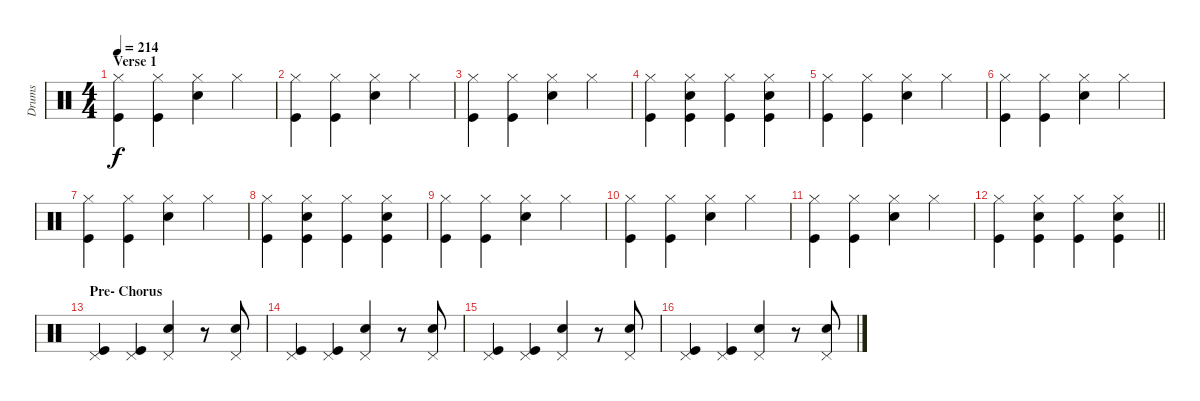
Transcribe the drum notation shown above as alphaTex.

\track ("Drums" "Drums") {instrument percussion}
\staff {score}
\articulation defaults
\ts (4 4)
\section ("" "Verse 1")
\tempo 214
\clef neutral
\ks c
("Hi-Hat (closed)" "Kick (hit)").4{dy f} ("Hi-Hat (closed)" "Kick (hit)").4 ("Hi-Hat (closed)" "Snare (hit) 2").4 "Hi-Hat (closed)".4 |
("Hi-Hat (closed)" "Kick (hit)").4 ("Hi-Hat (closed)" "Kick (hit)").4 ("Hi-Hat (closed)" "Snare (hit) 2").4 "Hi-Hat (closed)".4 |
("Hi-Hat (closed)" "Kick (hit)").4 ("Hi-Hat (closed)" "Kick (hit)").4 ("Hi-Hat (closed)" "Snare (hit) 2").4 "Hi-Hat (closed)".4 |
("Hi-Hat (closed)" "Kick (hit)").4 ("Hi-Hat (closed)" "Snare (hit) 2" "Kick (hit)").4 ("Hi-Hat (closed)" "Kick (hit)").4 ("Hi-Hat (closed)" "Snare (hit) 2" "Kick (hit)").4 |
("Hi-Hat (closed)" "Kick (hit)").4 ("Hi-Hat (closed)" "Kick (hit)").4 ("Hi-Hat (closed)" "Snare (hit) 2").4 "Hi-Hat (closed)".4 |
("Hi-Hat (closed)" "Kick (hit)").4 ("Hi-Hat (closed)" "Kick (hit)").4 ("Hi-Hat (closed)" "Snare (hit) 2").4 "Hi-Hat (closed)".4 |
("Hi-Hat (closed)" "Kick (hit)").4 ("Hi-Hat (closed)" "Kick (hit)").4 ("Hi-Hat (closed)" "Snare (hit) 2").4 "Hi-Hat (closed)".4 |
("Hi-Hat (closed)" "Kick (hit)").4 ("Hi-Hat (closed)" "Snare (hit) 2" "Kick (hit)").4 ("Hi-Hat (closed)" "Kick (hit)").4 ("Hi-Hat (closed)" "Snare (hit) 2" "Kick (hit)").4 |
("Hi-Hat (closed)" "Kick (hit)").4 ("Hi-Hat (closed)" "Kick (hit)").4 ("Hi-Hat (closed)" "Snare (hit) 2").4 "Hi-Hat (closed)".4 |
("Hi-Hat (closed)" "Kick (hit)").4 ("Hi-Hat (closed)" "Kick (hit)").4 ("Hi-Hat (closed)" "Snare (hit) 2").4 "Hi-Hat (closed)".4 |
("Hi-Hat (closed)" "Kick (hit)").4 ("Hi-Hat (closed)" "Kick (hit)").4 ("Hi-Hat (closed)" "Snare (hit) 2").4 "Hi-Hat (closed)".4 |
\barLineRight lightlight
("Hi-Hat (closed)" "Kick (hit)").4 ("Hi-Hat (closed)" "Snare (hit) 2" "Kick (hit)").4 ("Hi-Hat (closed)" "Kick (hit)").4 ("Hi-Hat (closed)" "Snare (hit) 2" "Kick (hit)").4 |
\section ("" "Pre- Chorus")
("Pedal Hi-Hat (hit)" "Kick (hit)").4{volume 11} ("Pedal Hi-Hat (hit)" "Kick (hit)").4 ("Pedal Hi-Hat (hit)" "Snare (hit) 2").4 r.8 ("Pedal Hi-Hat (hit)" "Snare (hit) 2").8 |
("Pedal Hi-Hat (hit)" "Kick (hit)").4 ("Pedal Hi-Hat (hit)" "Kick (hit)").4 ("Pedal Hi-Hat (hit)" "Snare (hit) 2").4 r.8 ("Pedal Hi-Hat (hit)" "Snare (hit) 2").8 |
("Pedal Hi-Hat (hit)" "Kick (hit)").4 ("Pedal Hi-Hat (hit)" "Kick (hit)").4 ("Pedal Hi-Hat (hit)" "Snare (hit) 2").4 r.8 ("Pedal Hi-Hat (hit)" "Snare (hit) 2").8 |
("Pedal Hi-Hat (hit)" "Kick (hit)").4 ("Pedal Hi-Hat (hit)" "Kick (hit)").4 ("Pedal Hi-Hat (hit)" "Snare (hit) 2").4 r.8 ("Pedal Hi-Hat (hit)" "Snare (hit) 2").8
